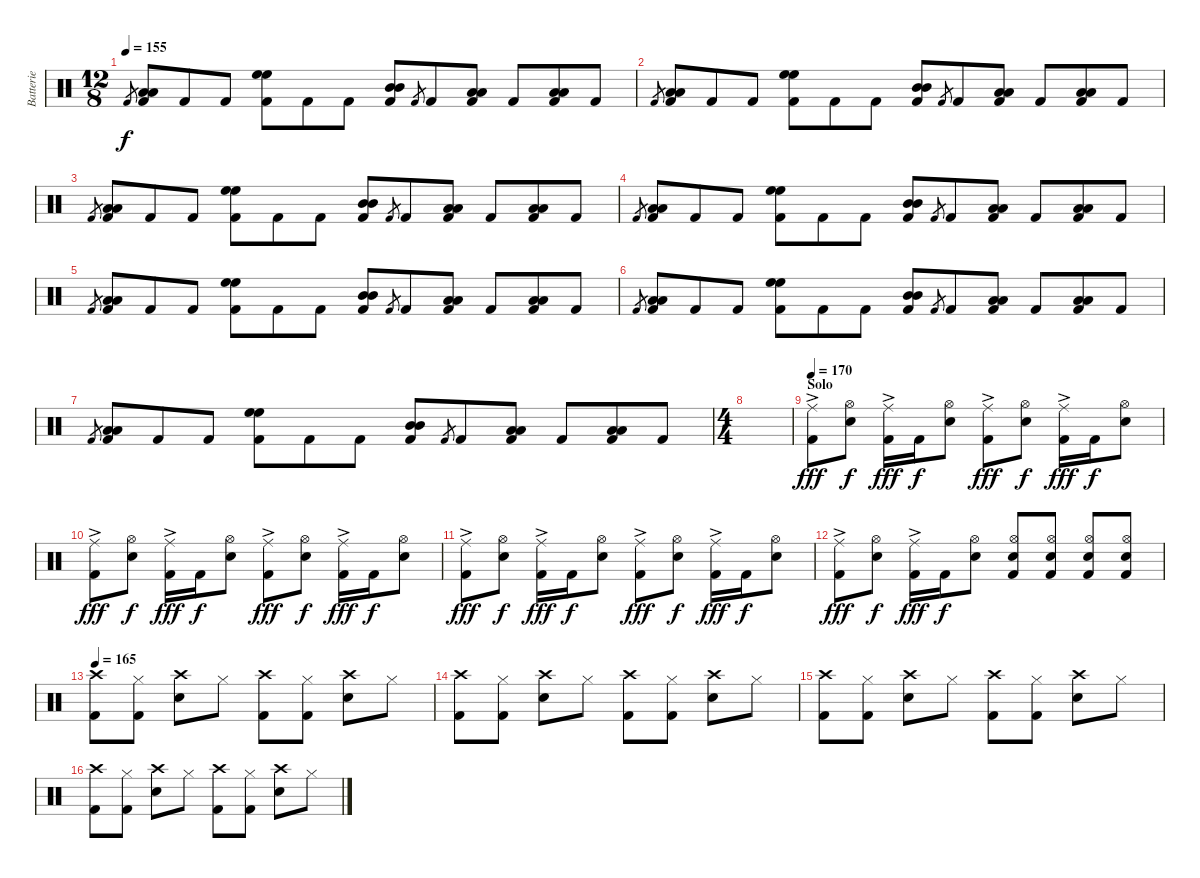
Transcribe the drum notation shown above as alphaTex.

\track ("Batterie" "Batterie") {instrument percussion}
\staff {score}
\articulation defaults
\ts (12 8)
\tempo 155
\clef neutral
\ks c "Kick (hit) 2".8{gr dy f}
("Low Tom (hit)" "Low Tom (hit)" "Kick (hit) 2").8 "Kick (hit) 2".8 "Kick (hit) 2".8 ("High Floor Tom (hit)" "High Floor Tom (hit)" "Kick (hit) 2").8 "Kick (hit) 2".8 "Kick (hit) 2".8 ("Mid Tom (hit)" "Mid Tom (hit)" "Kick (hit) 2").8 "Kick (hit) 2".8{gr} "Kick (hit) 2".8 ("Low Floor Tom (hit)" "Low Floor Tom (hit)" "Kick (hit) 2").8 "Kick (hit) 2".8 ("Low Floor Tom (hit)" "Low Floor Tom (hit)" "Kick (hit) 2").8 "Kick (hit) 2".8 |
"Kick (hit) 2".8{gr} ("Low Tom (hit)" "Low Tom (hit)" "Kick (hit) 2").8 "Kick (hit) 2".8 "Kick (hit) 2".8 ("High Floor Tom (hit)" "High Floor Tom (hit)" "Kick (hit) 2").8 "Kick (hit) 2".8 "Kick (hit) 2".8 ("Mid Tom (hit)" "Mid Tom (hit)" "Kick (hit) 2").8 "Kick (hit) 2".8{gr} "Kick (hit) 2".8 ("Low Floor Tom (hit)" "Low Floor Tom (hit)" "Kick (hit) 2").8 "Kick (hit) 2".8 ("Low Floor Tom (hit)" "Low Floor Tom (hit)" "Kick (hit) 2").8 "Kick (hit) 2".8 |
"Kick (hit) 2".8{gr} ("Low Tom (hit)" "Low Tom (hit)" "Kick (hit) 2").8 "Kick (hit) 2".8 "Kick (hit) 2".8 ("High Floor Tom (hit)" "High Floor Tom (hit)" "Kick (hit) 2").8 "Kick (hit) 2".8 "Kick (hit) 2".8 ("Mid Tom (hit)" "Mid Tom (hit)" "Kick (hit) 2").8 "Kick (hit) 2".8{gr} "Kick (hit) 2".8 ("Low Floor Tom (hit)" "Low Floor Tom (hit)" "Kick (hit) 2").8 "Kick (hit) 2".8 ("Low Floor Tom (hit)" "Low Floor Tom (hit)" "Kick (hit) 2").8 "Kick (hit) 2".8 |
"Kick (hit) 2".8{gr} ("Low Tom (hit)" "Low Tom (hit)" "Kick (hit) 2").8 "Kick (hit) 2".8 "Kick (hit) 2".8 ("High Floor Tom (hit)" "High Floor Tom (hit)" "Kick (hit) 2").8 "Kick (hit) 2".8 "Kick (hit) 2".8 ("Mid Tom (hit)" "Mid Tom (hit)" "Kick (hit) 2").8 "Kick (hit) 2".8{gr} "Kick (hit) 2".8 ("Low Floor Tom (hit)" "Low Floor Tom (hit)" "Kick (hit) 2").8 "Kick (hit) 2".8 ("Low Floor Tom (hit)" "Low Floor Tom (hit)" "Kick (hit) 2").8 "Kick (hit) 2".8 |
"Kick (hit) 2".8{gr} ("Low Tom (hit)" "Low Tom (hit)" "Kick (hit) 2").8 "Kick (hit) 2".8 "Kick (hit) 2".8 ("High Floor Tom (hit)" "High Floor Tom (hit)" "Kick (hit) 2").8 "Kick (hit) 2".8 "Kick (hit) 2".8 ("Mid Tom (hit)" "Mid Tom (hit)" "Kick (hit) 2").8 "Kick (hit) 2".8{gr} "Kick (hit) 2".8 ("Low Floor Tom (hit)" "Low Floor Tom (hit)" "Kick (hit) 2").8 "Kick (hit) 2".8 ("Low Floor Tom (hit)" "Low Floor Tom (hit)" "Kick (hit) 2").8 "Kick (hit) 2".8 |
"Kick (hit) 2".8{gr} ("Low Tom (hit)" "Low Tom (hit)" "Kick (hit) 2").8 "Kick (hit) 2".8 "Kick (hit) 2".8 ("High Floor Tom (hit)" "High Floor Tom (hit)" "Kick (hit) 2").8 "Kick (hit) 2".8 "Kick (hit) 2".8 ("Mid Tom (hit)" "Mid Tom (hit)" "Kick (hit) 2").8 "Kick (hit) 2".8{gr} "Kick (hit) 2".8 ("Low Floor Tom (hit)" "Low Floor Tom (hit)" "Kick (hit) 2").8 "Kick (hit) 2".8 ("Low Floor Tom (hit)" "Low Floor Tom (hit)" "Kick (hit) 2").8 "Kick (hit) 2".8 |
"Kick (hit) 2".8{gr} ("Low Tom (hit)" "Low Tom (hit)" "Kick (hit) 2").8 "Kick (hit) 2".8 "Kick (hit) 2".8 ("High Floor Tom (hit)" "High Floor Tom (hit)" "Kick (hit) 2").8 "Kick (hit) 2".8 "Kick (hit) 2".8 ("Mid Tom (hit)" "Mid Tom (hit)" "Kick (hit) 2").8 "Kick (hit) 2".8{gr} "Kick (hit) 2".8 ("Low Floor Tom (hit)" "Low Floor Tom (hit)" "Kick (hit) 2").8 "Kick (hit) 2".8 ("Low Floor Tom (hit)" "Low Floor Tom (hit)" "Kick (hit) 2").8 "Kick (hit) 2".8 |
\ts (4 4)
|
\section ("" "Solo")
\tempo 170
("Ride (middle)"{ac} "Kick (hit) 2").8{dy fff} ("Hi-Hat (open)" "Snare (hit) 2").8{dy f} ("Ride (middle)"{ac} "Kick (hit) 2").16{dy fff} "Kick (hit) 2".16{dy f} ("Hi-Hat (open)" "Snare (hit) 2").8 ("Ride (middle)"{ac} "Kick (hit) 2").8{dy fff} ("Hi-Hat (open)" "Snare (hit) 2").8{dy f} ("Ride (middle)"{ac} "Kick (hit) 2").16{dy fff} "Kick (hit) 2".16{dy f} ("Hi-Hat (open)" "Snare (hit) 2").8 |
("Ride (middle)"{ac} "Kick (hit) 2").8{dy fff} ("Hi-Hat (open)" "Snare (hit) 2").8{dy f} ("Ride (middle)"{ac} "Kick (hit) 2").16{dy fff} "Kick (hit) 2".16{dy f} ("Hi-Hat (open)" "Snare (hit) 2").8 ("Ride (middle)"{ac} "Kick (hit) 2").8{dy fff} ("Hi-Hat (open)" "Snare (hit) 2").8{dy f} ("Ride (middle)"{ac} "Kick (hit) 2").16{dy fff} "Kick (hit) 2".16{dy f} ("Hi-Hat (open)" "Snare (hit) 2").8 |
("Ride (middle)"{ac} "Kick (hit) 2").8{dy fff} ("Hi-Hat (open)" "Snare (hit) 2").8{dy f} ("Ride (middle)"{ac} "Kick (hit) 2").16{dy fff} "Kick (hit) 2".16{dy f} ("Hi-Hat (open)" "Snare (hit) 2").8 ("Ride (middle)"{ac} "Kick (hit) 2").8{dy fff} ("Hi-Hat (open)" "Snare (hit) 2").8{dy f} ("Ride (middle)"{ac} "Kick (hit) 2").16{dy fff} "Kick (hit) 2".16{dy f} ("Hi-Hat (open)" "Snare (hit) 2").8 |
("Ride (middle)"{ac} "Kick (hit) 2").8{dy fff} ("Hi-Hat (open)" "Snare (hit) 2").8{dy f} ("Ride (middle)"{ac} "Kick (hit) 2").16{dy fff} "Kick (hit) 2".16{dy f} ("Hi-Hat (open)" "Snare (hit) 2").8 ("Hi-Hat (open)" "Snare (hit) 2" "Kick (hit) 2").8 ("Hi-Hat (open)" "Snare (hit) 2" "Kick (hit) 2").8 ("Hi-Hat (open)" "Snare (hit) 2" "Kick (hit) 2").8 ("Hi-Hat (open)" "Snare (hit) 2" "Kick (hit) 2").8 |
\tempo 165
("Crash high (hit)" "Kick (hit) 2").8 ("Hi-Hat (closed)" "Kick (hit) 2").8 ("Crash high (hit)" "Snare (hit) 2").8 "Hi-Hat (closed)".8 ("Crash high (hit)" "Kick (hit) 2").8 ("Hi-Hat (closed)" "Kick (hit) 2").8 ("Crash high (hit)" "Snare (hit) 2").8 "Hi-Hat (closed)".8 |
("Crash high (hit)" "Kick (hit) 2").8 ("Hi-Hat (closed)" "Kick (hit) 2").8 ("Crash high (hit)" "Snare (hit) 2").8 "Hi-Hat (closed)".8 ("Crash high (hit)" "Kick (hit) 2").8 ("Hi-Hat (closed)" "Kick (hit) 2").8 ("Crash high (hit)" "Snare (hit) 2").8 "Hi-Hat (closed)".8 |
("Crash high (hit)" "Kick (hit) 2").8 ("Hi-Hat (closed)" "Kick (hit) 2").8 ("Crash high (hit)" "Snare (hit) 2").8 "Hi-Hat (closed)".8 ("Crash high (hit)" "Kick (hit) 2").8 ("Hi-Hat (closed)" "Kick (hit) 2").8 ("Crash high (hit)" "Snare (hit) 2").8 "Hi-Hat (closed)".8 |
("Crash high (hit)" "Kick (hit) 2").8 ("Hi-Hat (closed)" "Kick (hit) 2").8 ("Crash high (hit)" "Snare (hit) 2").8 "Hi-Hat (closed)".8 ("Crash high (hit)" "Kick (hit) 2").8 ("Hi-Hat (closed)" "Kick (hit) 2").8 ("Crash high (hit)" "Snare (hit) 2").8 "Hi-Hat (closed)".8
